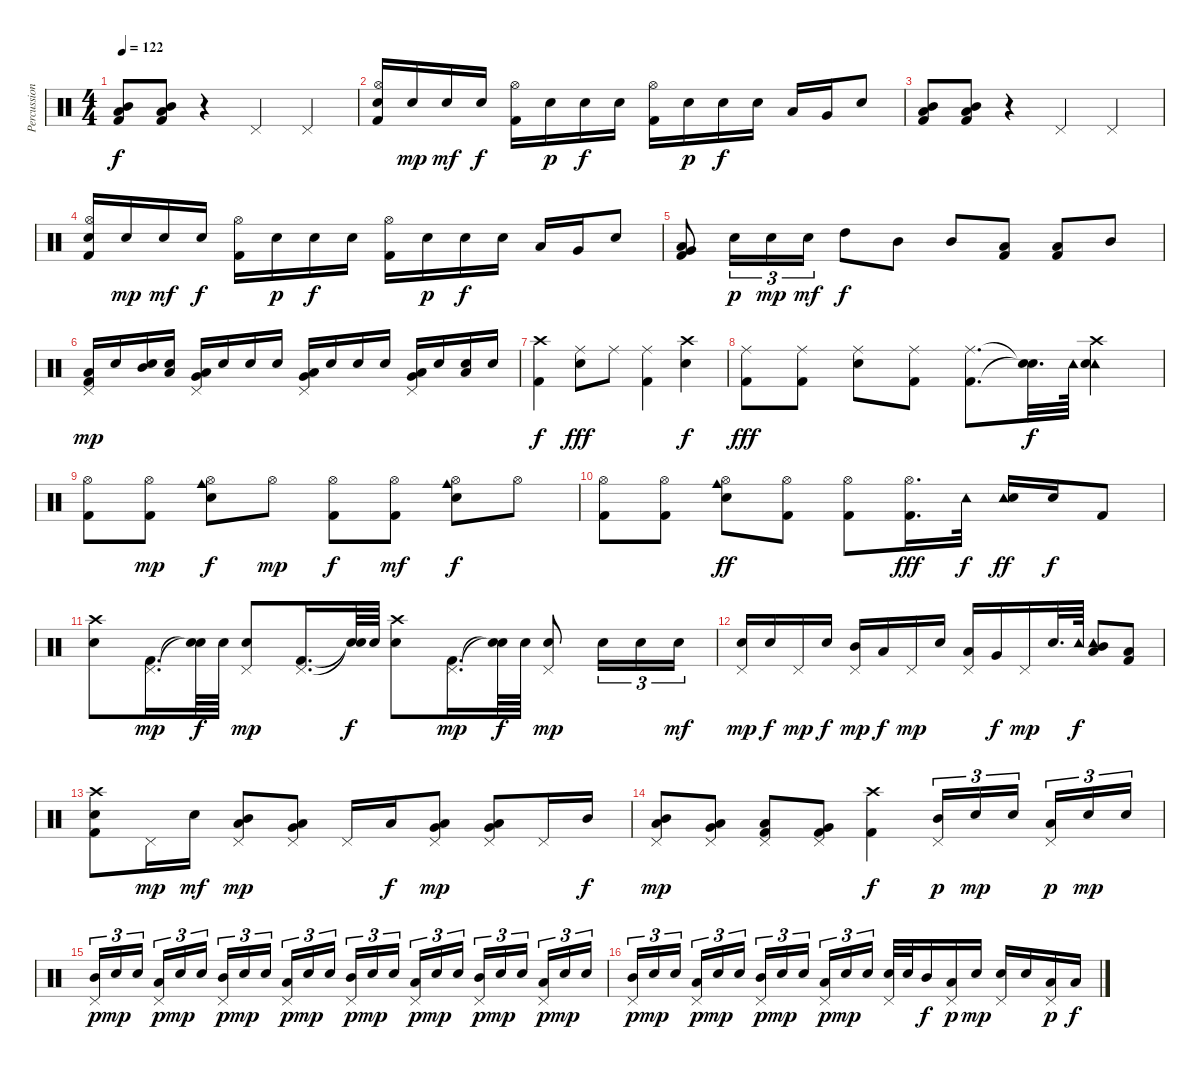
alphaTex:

\track ("Percussion (Peter)" "Percussion") {instrument percussion}
\staff {score}
\articulation defaults
\ts (4 4)
\tempo 122
\clef neutral
\ks c
("Mid Tom (hit)" "Low Tom (hit)" "Kick (hit) 2").8{dy f} ("Mid Tom (hit)" "Low Tom (hit)" "Kick (hit) 2").8 r.4 "Pedal Hi-Hat (hit)".4 "Pedal Hi-Hat (hit)".4 |
("Hi-Hat (open)" "Snare (hit) 2" "Kick (hit) 2").16 "Snare (hit) 2".16{dy mp} "Snare (hit) 2".16{dy mf} "Snare (hit) 2".16{dy f} ("Hi-Hat (open)" "Kick (hit) 2").16 "Snare (hit) 2".16{dy p} "Snare (hit) 2".16{dy f} "Snare (hit) 2".16 ("Hi-Hat (open)" "Kick (hit) 2").16 "Snare (hit) 2".16{dy p} "Snare (hit) 2".16{dy f} "Snare (hit) 2".16 "Low Tom (hit)".16 "Very Low Tom (hit)".16 "Snare (hit) 2".8 |
("Mid Tom (hit)" "Low Tom (hit)" "Kick (hit) 2").8 ("Mid Tom (hit)" "Low Tom (hit)" "Kick (hit) 2").8 r.4 "Pedal Hi-Hat (hit)".4 "Pedal Hi-Hat (hit)".4 |
("Hi-Hat (open)" "Snare (hit) 2" "Kick (hit) 2").16 "Snare (hit) 2".16{dy mp} "Snare (hit) 2".16{dy mf} "Snare (hit) 2".16{dy f} ("Hi-Hat (open)" "Kick (hit) 2").16 "Snare (hit) 2".16{dy p} "Snare (hit) 2".16{dy f} "Snare (hit) 2".16 ("Hi-Hat (open)" "Kick (hit) 2").16 "Snare (hit) 2".16{dy p} "Snare (hit) 2".16{dy f} "Snare (hit) 2".16 "Low Tom (hit)".16 "Very Low Tom (hit)".16 "Snare (hit) 2".8 |
("Low Tom (hit)" "Very Low Tom (hit)" "Kick (hit) 2").8 "Snare (hit) 2".16{tu (3 2) dy p} "Snare (hit) 2".16{tu (3 2) dy mp} "Snare (hit) 2".16{tu (3 2) dy mf} "High Tom (hit)".8{dy f} "Mid Tom (hit)".8 "Mid Tom (hit)".8 ("Low Tom (hit)" "Kick (hit) 2").8 ("Low Tom (hit)" "Kick (hit) 2").8 "Mid Tom (hit)".8 |
("Pedal Hi-Hat (hit)" "Low Tom (hit)" "Kick (hit) 2").16{dy mp} "Snare (hit) 2".16 ("Mid Tom (hit)" "Snare (hit) 2").16 ("Low Tom (hit)" "Snare (hit) 2").16 ("Pedal Hi-Hat (hit)" "Low Tom (hit)" "Very Low Tom (hit)").16 "Snare (hit) 2".16 "Snare (hit) 2".16 "Snare (hit) 2".16 ("Pedal Hi-Hat (hit)" "Very Low Tom (hit)" "Low Floor Tom (hit)").16 "Snare (hit) 2".16 "Snare (hit) 2".16 "Snare (hit) 2".16 ("Pedal Hi-Hat (hit)" "Low Tom (hit)" "Very Low Tom (hit)").16 "Snare (hit) 2".16 ("Low Floor Tom (hit)" "Snare (hit) 2").16 "Snare (hit) 2".16 |
("Crash high (hit)" "Kick (hit) 2").4{dy f} ("Ride (middle)" "Snare (hit) 2").8{dy fff} "Ride (middle)".8 ("Ride (middle)" "Kick (hit) 2").4 ("Crash high (hit)" "Snare (hit) 2").4{dy f} |
("Ride (middle)" "Kick (hit) 2").8{dy fff} ("Ride (middle)" "Kick (hit) 2").8 ("Ride (middle)" "Snare (hit) 2").8 ("Ride (middle)" "Kick (hit) 2").8 ("Ride (middle)" "Kick (hit) 2").8{d} ("Snare (hit)"{t} "Snare (hit)"{t}).32{d dy f} "Tambourine (hit)".64 ("Crash high (hit)" "Tambourine (hit)" "Snare (hit) 2").4 |
("Hi-Hat (open)" "Kick (hit) 2").8 ("Hi-Hat (open)" "Kick (hit) 2").8{dy mp} ("Cowbell medium (hit)" "Hi-Hat (open)" "Snare (hit) 2").8{dy f} "Hi-Hat (open)".8{dy mp} ("Hi-Hat (open)" "Kick (hit) 2").8{dy f} ("Hi-Hat (open)" "Kick (hit) 2").8{dy mf} ("Cowbell medium (hit)" "Hi-Hat (open)" "Snare (hit) 2").8{dy f} "Hi-Hat (open)".8 |
("Hi-Hat (open)" "Kick (hit) 2").8 ("Hi-Hat (open)" "Kick (hit) 2").8 ("Cowbell medium (hit)" "Hi-Hat (open)" "Snare (hit) 2").8{dy ff} ("Hi-Hat (open)" "Kick (hit) 2").8 ("Hi-Hat (open)" "Kick (hit) 2").8 ("Hi-Hat (open)" "Kick (hit) 2").16{d dy fff} "Tambourine (hit)".32{dy f} ("Tambourine (hit)" "Snare (hit) 2").16{dy ff} "Snare (hit) 2".16{dy f} "Kick (hit) 2".8 |
("Crash high (hit)" "Snare (hit) 2").8 ("Pedal Hi-Hat (hit)" "Kick (hit) 2").16{d dy mp} ("Snare (hit)"{t} "Snare (hit)"{t}).64{dy f} "Snare (hit) 2".64 ("Pedal Hi-Hat (hit)" "Snare (hit) 2").8{dy mp} ("Pedal Hi-Hat (hit)" "Kick (hit) 2").16{d} ("Snare (hit)"{t} "Snare (hit)"{t}).64{dy f} "Snare (hit) 2".64 ("Crash high (hit)" "Snare (hit) 2").8 ("Pedal Hi-Hat (hit)" "Kick (hit) 2").16{d dy mp} ("Snare (hit)"{t} "Snare (hit)"{t}).64{dy f} "Snare (hit) 2".64 ("Pedal Hi-Hat (hit)" "Snare (hit) 2").8{dy mp} "Snare (hit) 2".16{tu (3 2)} "Snare (hit) 2".16{tu (3 2)} "Snare (hit) 2".16{tu (3 2) dy mf} |
("Pedal Hi-Hat (hit)" "Snare (hit) 2").16{dy mp} "Snare (hit) 2".16{dy f} "Pedal Hi-Hat (hit)".16{dy mp} "Snare (hit) 2".16{dy f} ("Pedal Hi-Hat (hit)" "Mid Tom (hit)").16{dy mp} "Low Tom (hit)".16{dy f} "Pedal Hi-Hat (hit)".16{dy mp} "Snare (hit) 2".16 ("Pedal Hi-Hat (hit)" "Low Tom (hit)").16 "Very Low Tom (hit)".16{dy f} "Pedal Hi-Hat (hit)".16{dy mp} "Snare (hit) 2".32{d} "Tambourine (hit)".64{dy f} ("Tambourine (hit)" "Mid Tom (hit)" "Low Tom (hit)").8 ("Low Floor Tom (hit)" "Kick (hit) 2").8 |
("Crash high (hit)" "Snare (hit) 2" "Kick (hit) 2").8 "Pedal Hi-Hat (hit)".16{dy mp} "Snare (hit) 2".16{dy mf} ("Pedal Hi-Hat (hit)" "Mid Tom (hit)" "Low Tom (hit)").8{dy mp} ("Pedal Hi-Hat (hit)" "Low Tom (hit)" "Very Low Tom (hit)").8 "Pedal Hi-Hat (hit)".16 "Low Tom (hit)".16{dy f} ("Pedal Hi-Hat (hit)" "Low Tom (hit)" "Very Low Tom (hit)").8{dy mp} ("Pedal Hi-Hat (hit)" "Very Low Tom (hit)" "Low Floor Tom (hit)").8 "Pedal Hi-Hat (hit)".16 "Mid Tom (hit)".16{dy f} |
("Pedal Hi-Hat (hit)" "Mid Tom (hit)" "Low Tom (hit)").8{dy mp} ("Pedal Hi-Hat (hit)" "Low Tom (hit)" "Very Low Tom (hit)").8 ("Pedal Hi-Hat (hit)" "Low Tom (hit)" "Kick (hit) 2").8 ("Pedal Hi-Hat (hit)" "Very Low Tom (hit)" "Kick (hit) 2").8 ("Crash high (hit)" "Kick (hit) 2").4{dy f} ("Pedal Hi-Hat (hit)" "Mid Tom (hit)").16{tu (3 2) dy p} "Snare (hit) 2".16{tu (3 2) dy mp} "Snare (hit) 2".16{tu (3 2) beam splitsecondary} ("Pedal Hi-Hat (hit)" "Low Tom (hit)").16{tu (3 2) dy p} "Snare (hit) 2".16{tu (3 2) dy mp} "Snare (hit) 2".16{tu (3 2)} |
("Pedal Hi-Hat (hit)" "Mid Tom (hit)").16{tu (3 2) dy p} "Snare (hit) 2".16{tu (3 2) dy mp} "Snare (hit) 2".16{tu (3 2) beam splitsecondary} ("Pedal Hi-Hat (hit)" "Low Tom (hit)").16{tu (3 2) dy p} "Snare (hit) 2".16{tu (3 2) dy mp} "Snare (hit) 2".16{tu (3 2)} ("Pedal Hi-Hat (hit)" "Mid Tom (hit)").16{tu (3 2) dy p} "Snare (hit) 2".16{tu (3 2) dy mp} "Snare (hit) 2".16{tu (3 2) beam splitsecondary} ("Pedal Hi-Hat (hit)" "Low Tom (hit)").16{tu (3 2) dy p} "Snare (hit) 2".16{tu (3 2) dy mp} "Snare (hit) 2".16{tu (3 2)} ("Pedal Hi-Hat (hit)" "Mid Tom (hit)").16{tu (3 2) dy p} "Snare (hit) 2".16{tu (3 2) dy mp} "Snare (hit) 2".16{tu (3 2) beam splitsecondary} ("Pedal Hi-Hat (hit)" "Low Tom (hit)").16{tu (3 2) dy p} "Snare (hit) 2".16{tu (3 2) dy mp} "Snare (hit) 2".16{tu (3 2)} ("Pedal Hi-Hat (hit)" "Mid Tom (hit)").16{tu (3 2) dy p} "Snare (hit) 2".16{tu (3 2) dy mp} "Snare (hit) 2".16{tu (3 2) beam splitsecondary} ("Pedal Hi-Hat (hit)" "Low Tom (hit)").16{tu (3 2) dy p} "Snare (hit) 2".16{tu (3 2) dy mp} "Snare (hit) 2".16{tu (3 2)} |
("Pedal Hi-Hat (hit)" "Mid Tom (hit)").16{tu (3 2) dy p} "Snare (hit) 2".16{tu (3 2) dy mp} "Snare (hit) 2".16{tu (3 2) beam splitsecondary} ("Pedal Hi-Hat (hit)" "Low Tom (hit)").16{tu (3 2) dy p} "Snare (hit) 2".16{tu (3 2) dy mp} "Snare (hit) 2".16{tu (3 2)} ("Pedal Hi-Hat (hit)" "Mid Tom (hit)").16{tu (3 2) dy p} "Snare (hit) 2".16{tu (3 2) dy mp} "Snare (hit) 2".16{tu (3 2) beam splitsecondary} ("Pedal Hi-Hat (hit)" "Low Tom (hit)").16{tu (3 2) dy p} "Snare (hit) 2".16{tu (3 2) dy mp} "Snare (hit) 2".16{tu (3 2)} ("Pedal Hi-Hat (hit)" "Snare (hit) 2").32 "Snare (hit) 2".32 "Mid Tom (hit)".16{dy f} ("Pedal Hi-Hat (hit)" "Low Tom (hit)").16{dy p} "Snare (hit) 2".16{dy mp} ("Pedal Hi-Hat (hit)" "Snare (hit) 2").16 "Snare (hit) 2".16 ("Pedal Hi-Hat (hit)" "Low Tom (hit)").16{dy p} "Low Tom (hit)".16{dy f}
